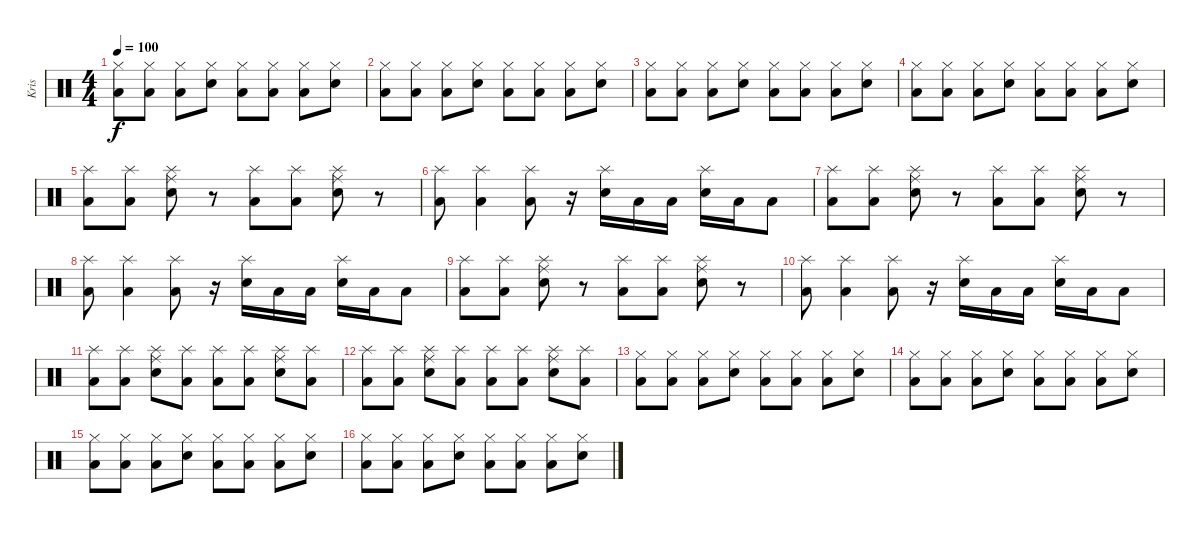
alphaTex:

\track ("Kris" "Kris") {instrument percussion}
\staff {score}
\articulation defaults
\ts (4 4)
\tempo 100
\clef neutral
\ks c
("Low Tom (hit)" "Hi-Hat (closed)").8{dy f} ("Low Tom (hit)" "Hi-Hat (closed)").8 ("Hi-Hat (closed)" "Low Tom (hit)").8 ("Hi-Hat (closed)" "Electric Snare (hit)").8 ("Hi-Hat (closed)" "Low Tom (hit)").8 ("Hi-Hat (closed)" "Low Tom (hit)").8 ("Hi-Hat (closed)" "Low Tom (hit)").8 ("Hi-Hat (closed)" "Electric Snare (hit)").8 |
("Low Tom (hit)" "Hi-Hat (closed)").8 ("Low Tom (hit)" "Hi-Hat (closed)").8 ("Hi-Hat (closed)" "Low Tom (hit)").8 ("Hi-Hat (closed)" "Electric Snare (hit)").8 ("Hi-Hat (closed)" "Low Tom (hit)").8 ("Hi-Hat (closed)" "Low Tom (hit)").8 ("Hi-Hat (closed)" "Low Tom (hit)").8 ("Hi-Hat (closed)" "Electric Snare (hit)").8 |
("Low Tom (hit)" "Hi-Hat (closed)").8 ("Low Tom (hit)" "Hi-Hat (closed)").8 ("Hi-Hat (closed)" "Low Tom (hit)").8 ("Hi-Hat (closed)" "Electric Snare (hit)").8 ("Hi-Hat (closed)" "Low Tom (hit)").8 ("Hi-Hat (closed)" "Low Tom (hit)").8 ("Hi-Hat (closed)" "Low Tom (hit)").8 ("Hi-Hat (closed)" "Electric Snare (hit)").8 |
("Low Tom (hit)" "Hi-Hat (closed)").8 ("Low Tom (hit)" "Hi-Hat (closed)").8 ("Hi-Hat (closed)" "Low Tom (hit)").8 ("Hi-Hat (closed)" "Electric Snare (hit)").8 ("Hi-Hat (closed)" "Low Tom (hit)").8 ("Hi-Hat (closed)" "Low Tom (hit)").8 ("Hi-Hat (closed)" "Low Tom (hit)").8 ("Hi-Hat (closed)" "Electric Snare (hit)").8 |
("Splash (hit)" "Low Tom (hit)").8 ("Splash (hit)" "Low Tom (hit)").8 ("Splash (hit)" "Ride (middle)" "Electric Snare (hit)").8 r.8 ("Splash (hit)" "Low Tom (hit)").8 ("Splash (hit)" "Low Tom (hit)").8 ("Splash (hit)" "Ride (middle)" "Electric Snare (hit)").8 r.8 |
("Splash (hit)" "Low Tom (hit)").8 ("Splash (hit)" "Low Tom (hit)").4 ("Splash (hit)" "Low Tom (hit)").8 r.16 ("Splash (hit)" "Electric Snare (hit)").16 "Low Tom (hit)".16 "Low Tom (hit)".16 ("Splash (hit)" "Electric Snare (hit)").16 "Low Tom (hit)".16 "Low Tom (hit)".8 |
("Splash (hit)" "Low Tom (hit)").8 ("Splash (hit)" "Low Tom (hit)").8 ("Splash (hit)" "Ride (middle)" "Electric Snare (hit)").8 r.8 ("Splash (hit)" "Low Tom (hit)").8 ("Splash (hit)" "Low Tom (hit)").8 ("Splash (hit)" "Ride (middle)" "Electric Snare (hit)").8 r.8 |
("Splash (hit)" "Low Tom (hit)").8 ("Splash (hit)" "Low Tom (hit)").4 ("Splash (hit)" "Low Tom (hit)").8 r.16 ("Splash (hit)" "Electric Snare (hit)").16 "Low Tom (hit)".16 "Low Tom (hit)".16 ("Splash (hit)" "Electric Snare (hit)").16 "Low Tom (hit)".16 "Low Tom (hit)".8 |
("Splash (hit)" "Low Tom (hit)").8 ("Splash (hit)" "Low Tom (hit)").8 ("Splash (hit)" "Ride (middle)" "Electric Snare (hit)").8 r.8 ("Splash (hit)" "Low Tom (hit)").8 ("Splash (hit)" "Low Tom (hit)").8 ("Splash (hit)" "Ride (middle)" "Electric Snare (hit)").8 r.8 |
("Splash (hit)" "Low Tom (hit)").8 ("Splash (hit)" "Low Tom (hit)").4 ("Splash (hit)" "Low Tom (hit)").8 r.16 ("Splash (hit)" "Electric Snare (hit)").16 "Low Tom (hit)".16 "Low Tom (hit)".16 ("Splash (hit)" "Electric Snare (hit)").16 "Low Tom (hit)".16 "Low Tom (hit)".8 |
("Splash (hit)" "Low Tom (hit)").8 ("Splash (hit)" "Low Tom (hit)").8 ("Splash (hit)" "Ride (middle)" "Electric Snare (hit)").8 ("Splash (hit)" "Low Tom (hit)").8 ("Splash (hit)" "Low Tom (hit)").8 ("Splash (hit)" "Low Tom (hit)").8 ("Splash (hit)" "Ride (middle)" "Electric Snare (hit)").8 ("Splash (hit)" "Low Tom (hit)").8 |
("Splash (hit)" "Low Tom (hit)").8 ("Splash (hit)" "Low Tom (hit)").8 ("Splash (hit)" "Ride (middle)" "Electric Snare (hit)").8 ("Splash (hit)" "Low Tom (hit)").8 ("Splash (hit)" "Low Tom (hit)").8 ("Splash (hit)" "Low Tom (hit)").8 ("Splash (hit)" "Ride (middle)" "Electric Snare (hit)").8 ("Splash (hit)" "Low Tom (hit)").8 |
("Low Tom (hit)" "Hi-Hat (closed)").8 ("Low Tom (hit)" "Hi-Hat (closed)").8 ("Hi-Hat (closed)" "Low Tom (hit)").8 ("Hi-Hat (closed)" "Electric Snare (hit)").8 ("Hi-Hat (closed)" "Low Tom (hit)").8 ("Hi-Hat (closed)" "Low Tom (hit)").8 ("Hi-Hat (closed)" "Low Tom (hit)").8 ("Hi-Hat (closed)" "Electric Snare (hit)").8 |
("Low Tom (hit)" "Hi-Hat (closed)").8 ("Low Tom (hit)" "Hi-Hat (closed)").8 ("Hi-Hat (closed)" "Low Tom (hit)").8 ("Hi-Hat (closed)" "Electric Snare (hit)").8 ("Hi-Hat (closed)" "Low Tom (hit)").8 ("Hi-Hat (closed)" "Low Tom (hit)").8 ("Hi-Hat (closed)" "Low Tom (hit)").8 ("Hi-Hat (closed)" "Electric Snare (hit)").8 |
("Low Tom (hit)" "Hi-Hat (closed)").8 ("Low Tom (hit)" "Hi-Hat (closed)").8 ("Hi-Hat (closed)" "Low Tom (hit)").8 ("Hi-Hat (closed)" "Electric Snare (hit)").8 ("Hi-Hat (closed)" "Low Tom (hit)").8 ("Hi-Hat (closed)" "Low Tom (hit)").8 ("Hi-Hat (closed)" "Low Tom (hit)").8 ("Hi-Hat (closed)" "Electric Snare (hit)").8 |
("Low Tom (hit)" "Hi-Hat (closed)").8 ("Low Tom (hit)" "Hi-Hat (closed)").8 ("Hi-Hat (closed)" "Low Tom (hit)").8 ("Hi-Hat (closed)" "Electric Snare (hit)").8 ("Hi-Hat (closed)" "Low Tom (hit)").8 ("Hi-Hat (closed)" "Low Tom (hit)").8 ("Hi-Hat (closed)" "Low Tom (hit)").8 ("Hi-Hat (closed)" "Electric Snare (hit)").8
